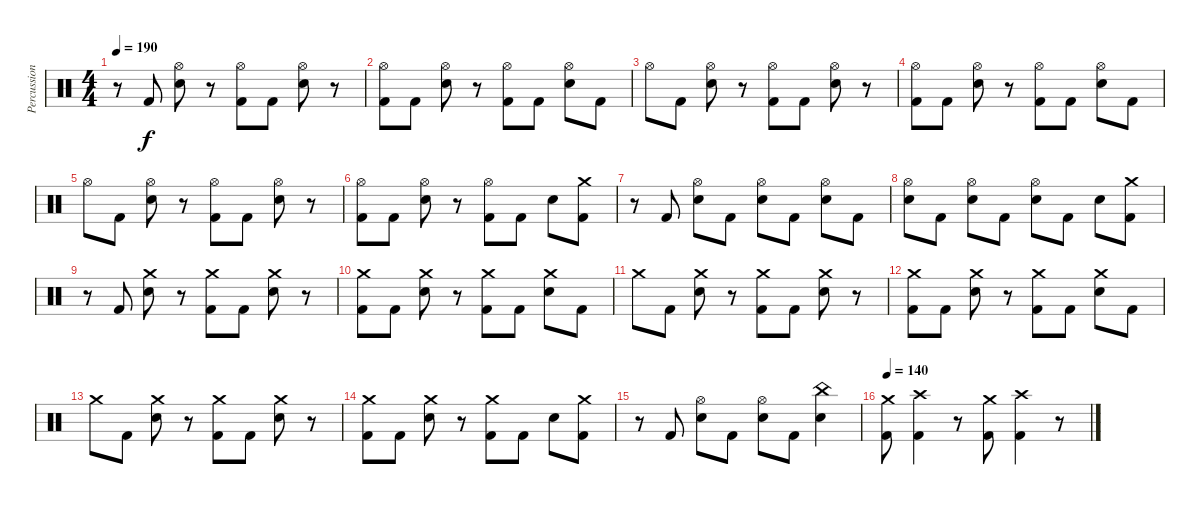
\track ("Percussion" "Percussion") {instrument percussion}
\staff {score}
\articulation defaults
\ts (4 4)
\tempo 190
\clef neutral
\ks c
r.8{dy f} "Kick (hit) 2".8 ("Electric Snare (hit)" "Hi-Hat (open)").8 r.8 ("Kick (hit) 2" "Hi-Hat (open)").8 "Kick (hit) 2".8 ("Electric Snare (hit)" "Hi-Hat (open)").8 r.8 |
("Kick (hit) 2" "Hi-Hat (open)").8 "Kick (hit) 2".8 ("Electric Snare (hit)" "Hi-Hat (open)").8 r.8 ("Kick (hit) 2" "Hi-Hat (open)").8 "Kick (hit) 2".8 ("Electric Snare (hit)" "Hi-Hat (open)").8 "Kick (hit) 2".8 |
"Hi-Hat (open)".8 "Kick (hit) 2".8 ("Electric Snare (hit)" "Hi-Hat (open)").8 r.8 ("Kick (hit) 2" "Hi-Hat (open)").8 "Kick (hit) 2".8 ("Electric Snare (hit)" "Hi-Hat (open)").8 r.8 |
("Kick (hit) 2" "Hi-Hat (open)").8 "Kick (hit) 2".8 ("Electric Snare (hit)" "Hi-Hat (open)").8 r.8 ("Kick (hit) 2" "Hi-Hat (open)").8 "Kick (hit) 2".8 ("Electric Snare (hit)" "Hi-Hat (open)").8 "Kick (hit) 2".8 |
"Hi-Hat (open)".8 "Kick (hit) 2".8 ("Electric Snare (hit)" "Hi-Hat (open)").8 r.8 ("Kick (hit) 2" "Hi-Hat (open)").8 "Kick (hit) 2".8 ("Electric Snare (hit)" "Hi-Hat (open)").8 r.8 |
("Kick (hit) 2" "Hi-Hat (open)").8 "Kick (hit) 2".8 ("Electric Snare (hit)" "Hi-Hat (open)").8 r.8 ("Kick (hit) 2" "Hi-Hat (open)").8 "Kick (hit) 2".8 "Electric Snare (hit)".8 ("Kick (hit) 2" "Crash medium (hit)").8 |
r.8 "Kick (hit) 2".8 ("Electric Snare (hit)" "Hi-Hat (open)").8 "Kick (hit) 2".8 ("Electric Snare (hit)" "Hi-Hat (open)").8 "Kick (hit) 2".8 ("Electric Snare (hit)" "Hi-Hat (open)").8 "Kick (hit) 2".8 |
("Electric Snare (hit)" "Hi-Hat (open)").8 "Kick (hit) 2".8 ("Electric Snare (hit)" "Hi-Hat (open)").8 "Kick (hit) 2".8 ("Electric Snare (hit)" "Hi-Hat (open)").8 "Kick (hit) 2".8 "Electric Snare (hit)".8 ("Kick (hit) 2" "Crash medium (hit)").8 |
r.8 "Kick (hit) 2".8 ("Electric Snare (hit)" "Crash medium (hit)").8 r.8 ("Kick (hit) 2" "Crash medium (hit)").8 "Kick (hit) 2".8 ("Electric Snare (hit)" "Crash medium (hit)").8 r.8 |
("Kick (hit) 2" "Crash medium (hit)").8 "Kick (hit) 2".8 ("Electric Snare (hit)" "Crash medium (hit)").8 r.8 ("Kick (hit) 2" "Crash medium (hit)").8 "Kick (hit) 2".8 ("Electric Snare (hit)" "Crash medium (hit)").8 "Kick (hit) 2".8 |
"Crash medium (hit)".8 "Kick (hit) 2".8 ("Electric Snare (hit)" "Crash medium (hit)").8 r.8 ("Kick (hit) 2" "Crash medium (hit)").8 "Kick (hit) 2".8 ("Electric Snare (hit)" "Crash medium (hit)").8 r.8 |
("Kick (hit) 2" "Crash medium (hit)").8 "Kick (hit) 2".8 ("Electric Snare (hit)" "Crash medium (hit)").8 r.8 ("Kick (hit) 2" "Crash medium (hit)").8 "Kick (hit) 2".8 ("Electric Snare (hit)" "Crash medium (hit)").8 "Kick (hit) 2".8 |
"Crash medium (hit)".8 "Kick (hit) 2".8 ("Electric Snare (hit)" "Crash medium (hit)").8 r.8 ("Kick (hit) 2" "Crash medium (hit)").8 "Kick (hit) 2".8 ("Electric Snare (hit)" "Crash medium (hit)").8 r.8 |
("Kick (hit) 2" "Crash medium (hit)").8 "Kick (hit) 2".8 ("Electric Snare (hit)" "Crash medium (hit)").8 r.8 ("Kick (hit) 2" "Crash medium (hit)").8 "Kick (hit) 2".8 "Electric Snare (hit)".8 ("Kick (hit) 2" "Crash medium (hit)").8 |
r.8 "Kick (hit) 2".8 ("Electric Snare (hit)" "Hi-Hat (open)").8 "Kick (hit) 2".8 ("Electric Snare (hit)" "Hi-Hat (open)").8 "Kick (hit) 2".8 ("Electric Snare (hit)" "China (hit)").4 |
\tempo 140
("Kick (hit) 2" "Crash medium (hit)").8 ("Kick (hit) 2" "Crash high (hit)").4 r.8 ("Kick (hit) 2" "Crash medium (hit)").8 ("Kick (hit) 2" "Crash high (hit)").4 r.8
